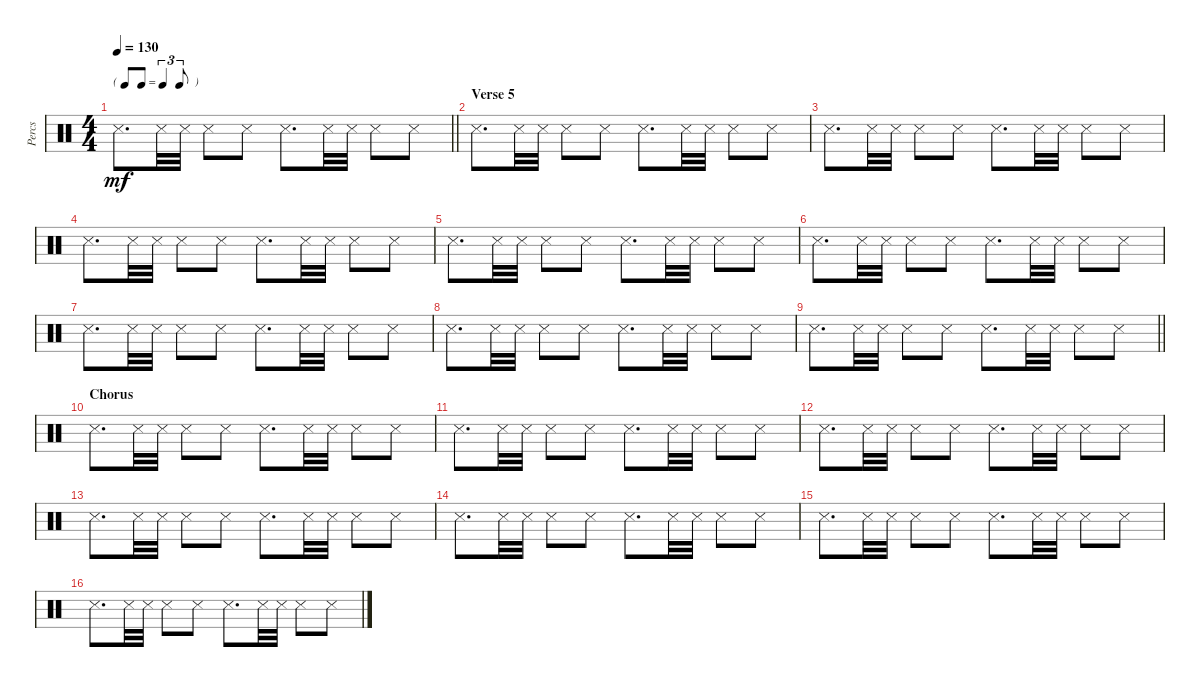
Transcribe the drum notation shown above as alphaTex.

\track ("Percs" "Percs") {instrument percussion}
\staff {score}
\articulation defaults
\ts (4 4)
\tf triplet8th
\tempo 130
\clef neutral
\barLineRight lightlight
\ks c "Snare (side stick) 3".8{d dy mf} "Snare (side stick) 3".32 "Snare (side stick) 3".32 "Snare (side stick) 3".8 "Snare (side stick) 3".8 "Snare (side stick) 3".8{d} "Snare (side stick) 3".32 "Snare (side stick) 3".32 "Snare (side stick) 3".8 "Snare (side stick) 3".8
|
\section ("" "Verse 5")
"Snare (side stick) 3".8{d} "Snare (side stick) 3".32 "Snare (side stick) 3".32 "Snare (side stick) 3".8 "Snare (side stick) 3".8 "Snare (side stick) 3".8{d} "Snare (side stick) 3".32 "Snare (side stick) 3".32 "Snare (side stick) 3".8 "Snare (side stick) 3".8 |
"Snare (side stick) 3".8{d} "Snare (side stick) 3".32 "Snare (side stick) 3".32 "Snare (side stick) 3".8 "Snare (side stick) 3".8 "Snare (side stick) 3".8{d} "Snare (side stick) 3".32 "Snare (side stick) 3".32 "Snare (side stick) 3".8 "Snare (side stick) 3".8 |
"Snare (side stick) 3".8{d} "Snare (side stick) 3".32 "Snare (side stick) 3".32 "Snare (side stick) 3".8 "Snare (side stick) 3".8 "Snare (side stick) 3".8{d} "Snare (side stick) 3".32 "Snare (side stick) 3".32 "Snare (side stick) 3".8 "Snare (side stick) 3".8 |
"Snare (side stick) 3".8{d} "Snare (side stick) 3".32 "Snare (side stick) 3".32 "Snare (side stick) 3".8 "Snare (side stick) 3".8 "Snare (side stick) 3".8{d} "Snare (side stick) 3".32 "Snare (side stick) 3".32 "Snare (side stick) 3".8 "Snare (side stick) 3".8 |
"Snare (side stick) 3".8{d} "Snare (side stick) 3".32 "Snare (side stick) 3".32 "Snare (side stick) 3".8 "Snare (side stick) 3".8 "Snare (side stick) 3".8{d} "Snare (side stick) 3".32 "Snare (side stick) 3".32 "Snare (side stick) 3".8 "Snare (side stick) 3".8 |
"Snare (side stick) 3".8{d} "Snare (side stick) 3".32 "Snare (side stick) 3".32 "Snare (side stick) 3".8 "Snare (side stick) 3".8 "Snare (side stick) 3".8{d} "Snare (side stick) 3".32 "Snare (side stick) 3".32 "Snare (side stick) 3".8 "Snare (side stick) 3".8 |
"Snare (side stick) 3".8{d} "Snare (side stick) 3".32 "Snare (side stick) 3".32 "Snare (side stick) 3".8 "Snare (side stick) 3".8 "Snare (side stick) 3".8{d} "Snare (side stick) 3".32 "Snare (side stick) 3".32 "Snare (side stick) 3".8 "Snare (side stick) 3".8 |
\barLineRight lightlight "Snare (side stick) 3".8{d} "Snare (side stick) 3".32 "Snare (side stick) 3".32 "Snare (side stick) 3".8 "Snare (side stick) 3".8 "Snare (side stick) 3".8{d} "Snare (side stick) 3".32 "Snare (side stick) 3".32 "Snare (side stick) 3".8 "Snare (side stick) 3".8
|
\section ("" "Chorus")
"Snare (side stick) 3".8{d} "Snare (side stick) 3".32 "Snare (side stick) 3".32 "Snare (side stick) 3".8 "Snare (side stick) 3".8 "Snare (side stick) 3".8{d} "Snare (side stick) 3".32 "Snare (side stick) 3".32 "Snare (side stick) 3".8 "Snare (side stick) 3".8 |
"Snare (side stick) 3".8{d} "Snare (side stick) 3".32 "Snare (side stick) 3".32 "Snare (side stick) 3".8 "Snare (side stick) 3".8 "Snare (side stick) 3".8{d} "Snare (side stick) 3".32 "Snare (side stick) 3".32 "Snare (side stick) 3".8 "Snare (side stick) 3".8 |
"Snare (side stick) 3".8{d} "Snare (side stick) 3".32 "Snare (side stick) 3".32 "Snare (side stick) 3".8 "Snare (side stick) 3".8 "Snare (side stick) 3".8{d} "Snare (side stick) 3".32 "Snare (side stick) 3".32 "Snare (side stick) 3".8 "Snare (side stick) 3".8 |
"Snare (side stick) 3".8{d} "Snare (side stick) 3".32 "Snare (side stick) 3".32 "Snare (side stick) 3".8 "Snare (side stick) 3".8 "Snare (side stick) 3".8{d} "Snare (side stick) 3".32 "Snare (side stick) 3".32 "Snare (side stick) 3".8 "Snare (side stick) 3".8 |
"Snare (side stick) 3".8{d} "Snare (side stick) 3".32 "Snare (side stick) 3".32 "Snare (side stick) 3".8 "Snare (side stick) 3".8 "Snare (side stick) 3".8{d} "Snare (side stick) 3".32 "Snare (side stick) 3".32 "Snare (side stick) 3".8 "Snare (side stick) 3".8 |
"Snare (side stick) 3".8{d} "Snare (side stick) 3".32 "Snare (side stick) 3".32 "Snare (side stick) 3".8 "Snare (side stick) 3".8 "Snare (side stick) 3".8{d} "Snare (side stick) 3".32 "Snare (side stick) 3".32 "Snare (side stick) 3".8 "Snare (side stick) 3".8 |
"Snare (side stick) 3".8{d} "Snare (side stick) 3".32 "Snare (side stick) 3".32 "Snare (side stick) 3".8 "Snare (side stick) 3".8 "Snare (side stick) 3".8{d} "Snare (side stick) 3".32 "Snare (side stick) 3".32 "Snare (side stick) 3".8 "Snare (side stick) 3".8
